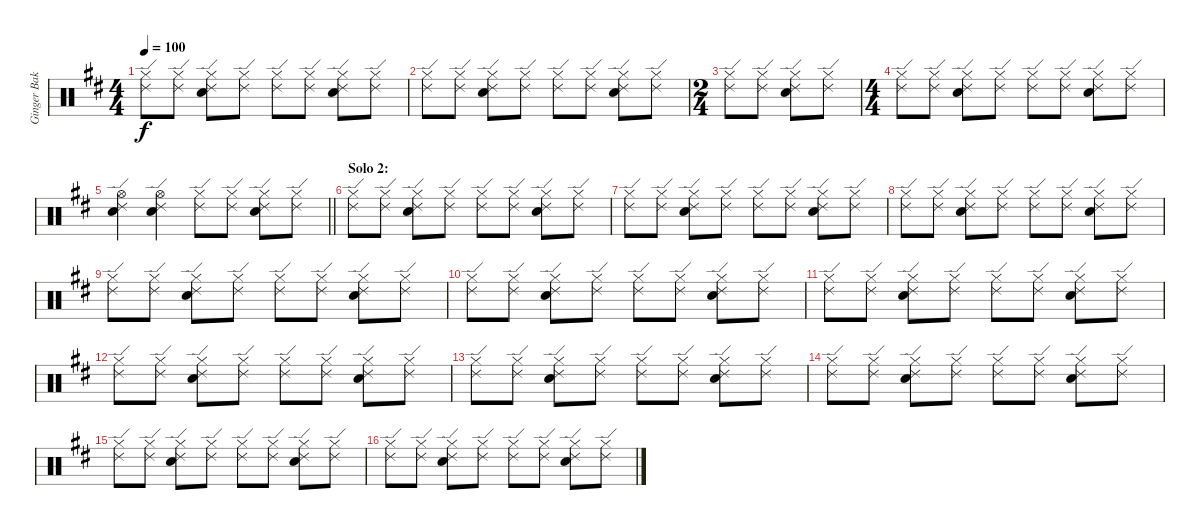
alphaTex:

\track ("Ginger Baker" "Ginger Bak") {instrument percussion}
\staff {score}
\articulation defaults
\ts (4 4)
\tempo 100
\clef neutral
\ks d
("Hi-Hat (closed)" "Ride (edge) 2").8{dy f} ("Hi-Hat (closed)" "Ride (edge) 2").8 ("Hi-Hat (closed)" "Ride (edge) 2" "Electric Snare (hit)").8 ("Hi-Hat (closed)" "Ride (edge) 2").8 ("Hi-Hat (closed)" "Ride (edge) 2").8 ("Hi-Hat (closed)" "Ride (edge) 2").8 ("Hi-Hat (closed)" "Ride (edge) 2" "Electric Snare (hit)").8 ("Hi-Hat (closed)" "Ride (edge) 2").8 |
("Hi-Hat (closed)" "Ride (edge) 2").8 ("Hi-Hat (closed)" "Ride (edge) 2").8 ("Hi-Hat (closed)" "Ride (edge) 2" "Electric Snare (hit)").8 ("Hi-Hat (closed)" "Ride (edge) 2").8 ("Hi-Hat (closed)" "Ride (edge) 2").8 ("Hi-Hat (closed)" "Ride (edge) 2").8 ("Hi-Hat (closed)" "Ride (edge) 2" "Electric Snare (hit)").8 ("Hi-Hat (closed)" "Ride (edge) 2").8 |
\ts (2 4)
("Hi-Hat (closed)" "Ride (edge) 2").8 ("Hi-Hat (closed)" "Ride (edge) 2").8 ("Hi-Hat (closed)" "Ride (edge) 2" "Electric Snare (hit)").8 ("Hi-Hat (closed)" "Ride (edge) 2").8 |
\ts (4 4)
("Hi-Hat (closed)" "Ride (edge) 2").8 ("Hi-Hat (closed)" "Ride (edge) 2").8 ("Hi-Hat (closed)" "Ride (edge) 2" "Electric Snare (hit)").8 ("Hi-Hat (closed)" "Ride (edge) 2").8 ("Hi-Hat (closed)" "Ride (edge) 2").8 ("Hi-Hat (closed)" "Ride (edge) 2").8 ("Hi-Hat (closed)" "Ride (edge) 2" "Electric Snare (hit)").8 ("Hi-Hat (closed)" "Ride (edge) 2").8 |
\barLineRight lightlight
("Hi-Hat (open)" "Ride (edge) 2" "Electric Snare (hit)").4 ("Hi-Hat (open)" "Ride (edge) 2" "Electric Snare (hit)").4 ("Hi-Hat (closed)" "Ride (edge) 2").8 ("Hi-Hat (closed)" "Ride (edge) 2").8 ("Hi-Hat (closed)" "Ride (edge) 2" "Electric Snare (hit)").8 ("Hi-Hat (closed)" "Ride (edge) 2").8 |
\section ("" "Solo 2:")
("Hi-Hat (closed)" "Ride (edge) 2").8 ("Hi-Hat (closed)" "Ride (edge) 2").8 ("Hi-Hat (closed)" "Ride (edge) 2" "Electric Snare (hit)").8 ("Hi-Hat (closed)" "Ride (edge) 2").8 ("Hi-Hat (closed)" "Ride (edge) 2").8 ("Hi-Hat (closed)" "Ride (edge) 2").8 ("Hi-Hat (closed)" "Ride (edge) 2" "Electric Snare (hit)").8 ("Hi-Hat (closed)" "Ride (edge) 2").8 |
("Hi-Hat (closed)" "Ride (edge) 2").8 ("Hi-Hat (closed)" "Ride (edge) 2").8 ("Hi-Hat (closed)" "Ride (edge) 2" "Electric Snare (hit)").8 ("Hi-Hat (closed)" "Ride (edge) 2").8 ("Hi-Hat (closed)" "Ride (edge) 2").8 ("Hi-Hat (closed)" "Ride (edge) 2").8 ("Hi-Hat (closed)" "Ride (edge) 2" "Electric Snare (hit)").8 ("Hi-Hat (closed)" "Ride (edge) 2").8 |
("Hi-Hat (closed)" "Ride (edge) 2").8 ("Hi-Hat (closed)" "Ride (edge) 2").8 ("Hi-Hat (closed)" "Ride (edge) 2" "Electric Snare (hit)").8 ("Hi-Hat (closed)" "Ride (edge) 2").8 ("Hi-Hat (closed)" "Ride (edge) 2").8 ("Hi-Hat (closed)" "Ride (edge) 2").8 ("Hi-Hat (closed)" "Ride (edge) 2" "Electric Snare (hit)").8 ("Hi-Hat (closed)" "Ride (edge) 2").8 |
("Hi-Hat (closed)" "Ride (edge) 2").8 ("Hi-Hat (closed)" "Ride (edge) 2").8 ("Hi-Hat (closed)" "Ride (edge) 2" "Electric Snare (hit)").8 ("Hi-Hat (closed)" "Ride (edge) 2").8 ("Hi-Hat (closed)" "Ride (edge) 2").8 ("Hi-Hat (closed)" "Ride (edge) 2").8 ("Hi-Hat (closed)" "Ride (edge) 2" "Electric Snare (hit)").8 ("Hi-Hat (closed)" "Ride (edge) 2").8 |
("Hi-Hat (closed)" "Ride (edge) 2").8 ("Hi-Hat (closed)" "Ride (edge) 2").8 ("Hi-Hat (closed)" "Ride (edge) 2" "Electric Snare (hit)").8 ("Hi-Hat (closed)" "Ride (edge) 2").8 ("Hi-Hat (closed)" "Ride (edge) 2").8 ("Hi-Hat (closed)" "Ride (edge) 2").8 ("Hi-Hat (closed)" "Ride (edge) 2" "Electric Snare (hit)").8 ("Hi-Hat (closed)" "Ride (edge) 2").8 |
("Hi-Hat (closed)" "Ride (edge) 2").8 ("Hi-Hat (closed)" "Ride (edge) 2").8 ("Hi-Hat (closed)" "Ride (edge) 2" "Electric Snare (hit)").8 ("Hi-Hat (closed)" "Ride (edge) 2").8 ("Hi-Hat (closed)" "Ride (edge) 2").8 ("Hi-Hat (closed)" "Ride (edge) 2").8 ("Hi-Hat (closed)" "Ride (edge) 2" "Electric Snare (hit)").8 ("Hi-Hat (closed)" "Ride (edge) 2").8 |
("Hi-Hat (closed)" "Ride (edge) 2").8 ("Hi-Hat (closed)" "Ride (edge) 2").8 ("Hi-Hat (closed)" "Ride (edge) 2" "Electric Snare (hit)").8 ("Hi-Hat (closed)" "Ride (edge) 2").8 ("Hi-Hat (closed)" "Ride (edge) 2").8 ("Hi-Hat (closed)" "Ride (edge) 2").8 ("Hi-Hat (closed)" "Ride (edge) 2" "Electric Snare (hit)").8 ("Hi-Hat (closed)" "Ride (edge) 2").8 |
("Hi-Hat (closed)" "Ride (edge) 2").8 ("Hi-Hat (closed)" "Ride (edge) 2").8 ("Hi-Hat (closed)" "Ride (edge) 2" "Electric Snare (hit)").8 ("Hi-Hat (closed)" "Ride (edge) 2").8 ("Hi-Hat (closed)" "Ride (edge) 2").8 ("Hi-Hat (closed)" "Ride (edge) 2").8 ("Hi-Hat (closed)" "Ride (edge) 2" "Electric Snare (hit)").8 ("Hi-Hat (closed)" "Ride (edge) 2").8 |
("Hi-Hat (closed)" "Ride (edge) 2").8 ("Hi-Hat (closed)" "Ride (edge) 2").8 ("Hi-Hat (closed)" "Ride (edge) 2" "Electric Snare (hit)").8 ("Hi-Hat (closed)" "Ride (edge) 2").8 ("Hi-Hat (closed)" "Ride (edge) 2").8 ("Hi-Hat (closed)" "Ride (edge) 2").8 ("Hi-Hat (closed)" "Ride (edge) 2" "Electric Snare (hit)").8 ("Hi-Hat (closed)" "Ride (edge) 2").8 |
("Hi-Hat (closed)" "Ride (edge) 2").8 ("Hi-Hat (closed)" "Ride (edge) 2").8 ("Hi-Hat (closed)" "Ride (edge) 2" "Electric Snare (hit)").8 ("Hi-Hat (closed)" "Ride (edge) 2").8 ("Hi-Hat (closed)" "Ride (edge) 2").8 ("Hi-Hat (closed)" "Ride (edge) 2").8 ("Hi-Hat (closed)" "Ride (edge) 2" "Electric Snare (hit)").8 ("Hi-Hat (closed)" "Ride (edge) 2").8 |
("Hi-Hat (closed)" "Ride (edge) 2").8 ("Hi-Hat (closed)" "Ride (edge) 2").8 ("Hi-Hat (closed)" "Ride (edge) 2" "Electric Snare (hit)").8 ("Hi-Hat (closed)" "Ride (edge) 2").8 ("Hi-Hat (closed)" "Ride (edge) 2").8 ("Hi-Hat (closed)" "Ride (edge) 2").8 ("Hi-Hat (closed)" "Ride (edge) 2" "Electric Snare (hit)").8 ("Hi-Hat (closed)" "Ride (edge) 2").8
